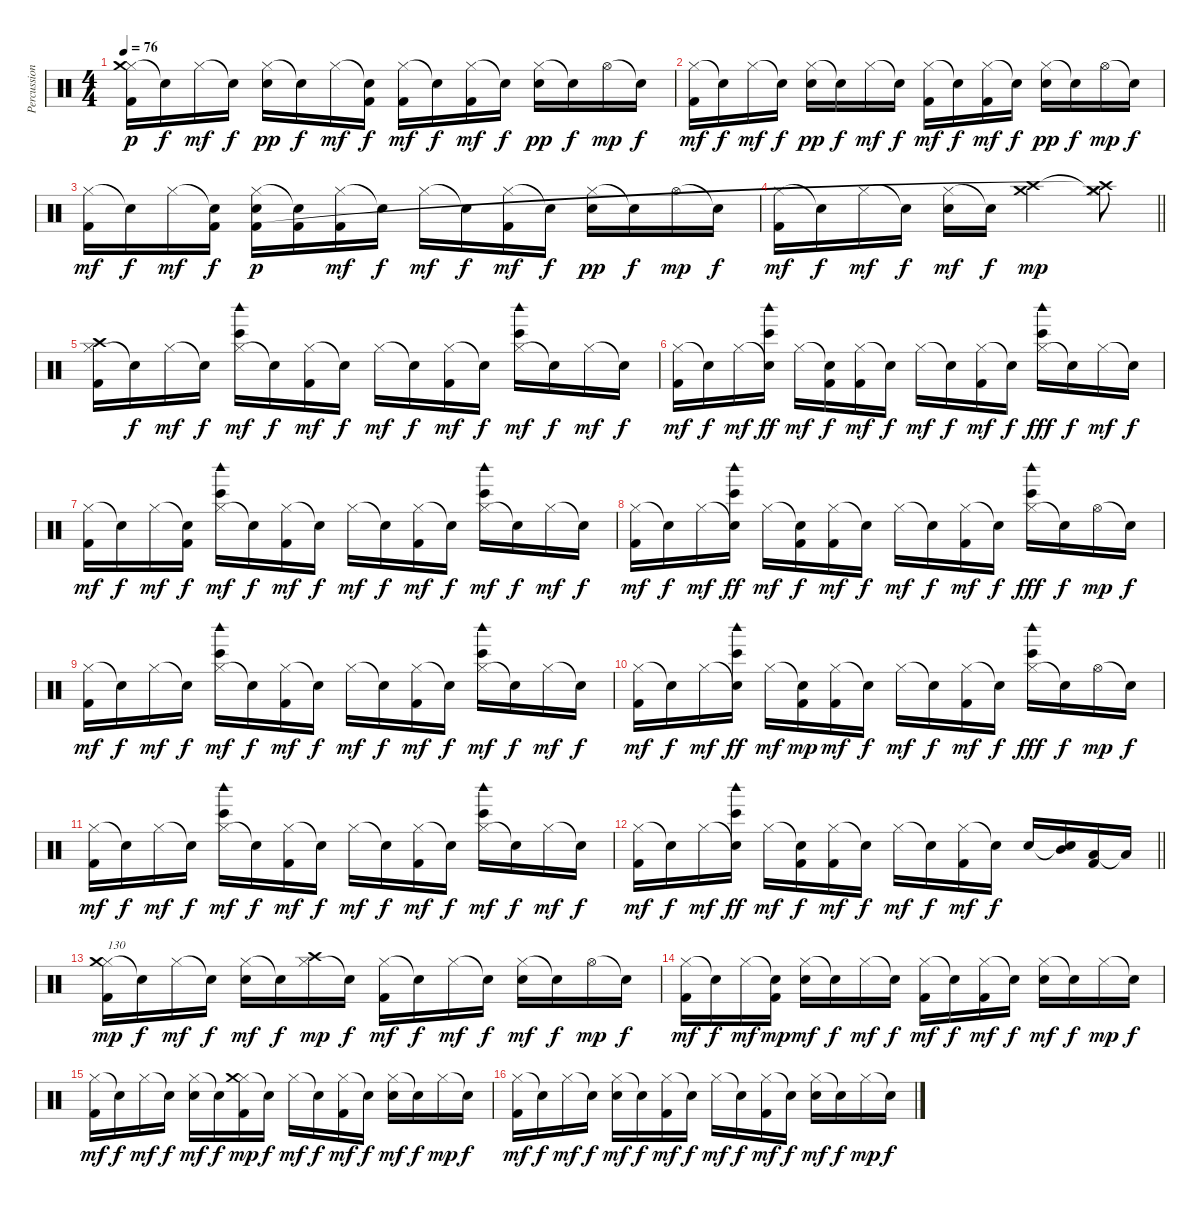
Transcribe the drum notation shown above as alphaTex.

\track ("Percussion" "Percussion") {instrument percussion}
\staff {score}
\articulation defaults
\ts (4 4)
\tempo 76
\clef neutral
\ks c
("Hi-Hat (closed)" "Crash medium (hit)" "Kick (hit) 2").16{dy p} "Snare (hit)"{t}.16{dy f} "Hi-Hat (closed)".16{dy mf} "Snare (hit)"{t}.16{dy f} ("Hi-Hat (closed)" "Electric Snare (hit)").16{dy pp} "Snare (hit)"{t}.16{dy f} "Hi-Hat (closed)".16{dy mf} ("Snare (hit)"{t} "Kick (hit) 2").16{dy f} ("Hi-Hat (closed)" "Kick (hit) 2").16{dy mf} "Snare (hit)"{t}.16{dy f} ("Hi-Hat (closed)" "Kick (hit) 2").16{dy mf} "Snare (hit)"{t}.16{dy f} ("Hi-Hat (closed)" "Electric Snare (hit)").16{dy pp} "Snare (hit)"{t}.16{dy f} "Hi-Hat (open)".16{dy mp} "Snare (hit)"{t}.16{dy f} |
("Hi-Hat (closed)" "Kick (hit) 2").16{dy mf} "Snare (hit)"{t}.16{dy f} "Hi-Hat (closed)".16{dy mf} "Snare (hit)"{t}.16{dy f} ("Hi-Hat (closed)" "Electric Snare (hit)").16{dy pp} "Snare (hit)"{t}.16{dy f} "Hi-Hat (closed)".16{dy mf} "Snare (hit)"{t}.16{dy f} ("Hi-Hat (closed)" "Kick (hit) 2").16{dy mf} "Snare (hit)"{t}.16{dy f} ("Hi-Hat (closed)" "Kick (hit) 2").16{dy mf} "Snare (hit)"{t}.16{dy f} ("Hi-Hat (closed)" "Electric Snare (hit)").16{dy pp} "Snare (hit)"{t}.16{dy f} "Hi-Hat (open)".16{dy mp} "Snare (hit)"{t}.16{dy f} |
("Hi-Hat (closed)" "Kick (hit) 2").16{dy mf} "Snare (hit)"{t}.16{dy f} "Hi-Hat (closed)".16{dy mf} ("Snare (hit)"{t} "Kick (hit) 2").16{dy f} ("Hi-Hat (closed)" "Electric Snare (hit)" "Kick (hit) 2").16{dy p} ("Snare (hit)"{t} "Kick (hit) 2").16 ("Hi-Hat (closed)" "Kick (hit) 2").16{dy mf} "Snare (hit)"{t}.16{dy f} "Hi-Hat (closed)".16{dy mf} "Snare (hit)"{t}.16{dy f} ("Hi-Hat (closed)" "Kick (hit) 2").16{dy mf} "Snare (hit)"{t}.16{dy f} ("Hi-Hat (closed)" "Electric Snare (hit)").16{dy pp} "Snare (hit)"{t}.16{dy f} "Hi-Hat (open)".16{dy mp} "Snare (hit)"{t}.16{dy f} |
\barLineRight lightlight
("Hi-Hat (closed)" "Kick (hit) 2").16{dy mf} "Snare (hit)"{t}.16{dy f} "Hi-Hat (closed)".16{dy mf} "Snare (hit)"{t}.16{dy f} ("Hi-Hat (closed)" "Electric Snare (hit)").16{dy mf} "Snare (hit)"{t}.16{dy f} ("Crash medium (hit)" "Crash high (hit)").2{dy mp} ("Hi-Hat (closed)" "Crash medium (hit)"{t} "Crash high (hit)"{t}).8 |
("Hi-Hat (closed)" "Crash high (hit)" "Kick (hit) 2").16 "Snare (hit)"{t}.16{dy f} "Hi-Hat (closed)".16{dy mf} "Snare (hit)"{t}.16{dy f} ("Hi-Hat (closed)" "Woodblock high (hit)" "Bongo High (hit)").16{dy mf} "Snare (hit)"{t}.16{dy f} ("Hi-Hat (closed)" "Kick (hit) 2").16{dy mf} "Snare (hit)"{t}.16{dy f} "Hi-Hat (closed)".16{dy mf} "Snare (hit)"{t}.16{dy f} ("Hi-Hat (closed)" "Kick (hit) 2").16{dy mf} "Snare (hit)"{t}.16{dy f} ("Hi-Hat (closed)" "Woodblock high (hit)" "Bongo High (hit)").16{dy mf} "Snare (hit)"{t}.16{dy f} "Hi-Hat (closed)".16{dy mf} "Snare (hit)"{t}.16{dy f} |
("Hi-Hat (closed)" "Kick (hit) 2").16{dy mf} "Snare (hit)"{t}.16{dy f} "Hi-Hat (closed)".16{dy mf} ("Snare (hit)"{t} "Woodblock high (hit)" "Bongo High (hit)").16{dy ff} "Hi-Hat (closed)".16{dy mf} ("Snare (hit)"{t} "Kick (hit) 2").16{dy f} ("Hi-Hat (closed)" "Kick (hit) 2").16{dy mf} "Snare (hit)"{t}.16{dy f} "Hi-Hat (closed)".16{dy mf} "Snare (hit)"{t}.16{dy f} ("Hi-Hat (closed)" "Kick (hit) 2").16{dy mf} "Snare (hit)"{t}.16{dy f} ("Hi-Hat (closed)" "Woodblock high (hit)" "Bongo High (hit)").16{dy fff} "Snare (hit)"{t}.16{dy f} "Hi-Hat (closed)".16{dy mf} "Snare (hit)"{t}.16{dy f} |
("Hi-Hat (closed)" "Kick (hit) 2").16{dy mf} "Snare (hit)"{t}.16{dy f} "Hi-Hat (closed)".16{dy mf} ("Snare (hit)"{t} "Kick (hit) 2").16{dy f} ("Hi-Hat (closed)" "Woodblock high (hit)" "Bongo High (hit)").16{dy mf} "Snare (hit)"{t}.16{dy f} ("Hi-Hat (closed)" "Kick (hit) 2").16{dy mf} "Snare (hit)"{t}.16{dy f} "Hi-Hat (closed)".16{dy mf} "Snare (hit)"{t}.16{dy f} ("Hi-Hat (closed)" "Kick (hit) 2").16{dy mf} "Snare (hit)"{t}.16{dy f} ("Hi-Hat (closed)" "Woodblock high (hit)" "Bongo High (hit)").16{dy mf} "Snare (hit)"{t}.16{dy f} "Hi-Hat (closed)".16{dy mf} "Snare (hit)"{t}.16{dy f} |
("Hi-Hat (closed)" "Kick (hit) 2").16{dy mf} "Snare (hit)"{t}.16{dy f} "Hi-Hat (closed)".16{dy mf} ("Snare (hit)"{t} "Woodblock high (hit)" "Bongo High (hit)").16{dy ff} "Hi-Hat (closed)".16{dy mf} ("Snare (hit)"{t} "Kick (hit) 2").16{dy f} ("Hi-Hat (closed)" "Kick (hit) 2").16{dy mf} "Snare (hit)"{t}.16{dy f} "Hi-Hat (closed)".16{dy mf} "Snare (hit)"{t}.16{dy f} ("Hi-Hat (closed)" "Kick (hit) 2").16{dy mf} "Snare (hit)"{t}.16{dy f} ("Hi-Hat (closed)" "Woodblock high (hit)" "Bongo High (hit)").16{dy fff} "Snare (hit)"{t}.16{dy f} "Hi-Hat (open)".16{dy mp} "Snare (hit)"{t}.16{dy f} |
("Hi-Hat (closed)" "Kick (hit) 2").16{dy mf} "Snare (hit)"{t}.16{dy f} "Hi-Hat (closed)".16{dy mf} "Snare (hit)"{t}.16{dy f} ("Hi-Hat (closed)" "Woodblock high (hit)" "Bongo High (hit)").16{dy mf} "Snare (hit)"{t}.16{dy f} ("Hi-Hat (closed)" "Kick (hit) 2").16{dy mf} "Snare (hit)"{t}.16{dy f} "Hi-Hat (closed)".16{dy mf} "Snare (hit)"{t}.16{dy f} ("Hi-Hat (closed)" "Kick (hit) 2").16{dy mf} "Snare (hit)"{t}.16{dy f} ("Hi-Hat (closed)" "Woodblock high (hit)" "Bongo High (hit)").16{dy mf} "Snare (hit)"{t}.16{dy f} "Hi-Hat (closed)".16{dy mf} "Snare (hit)"{t}.16{dy f} |
("Hi-Hat (closed)" "Kick (hit) 2").16{dy mf} "Snare (hit)"{t}.16{dy f} "Hi-Hat (closed)".16{dy mf} ("Snare (hit)"{t} "Woodblock high (hit)" "Bongo High (hit)").16{dy ff} "Hi-Hat (closed)".16{dy mf} ("Snare (hit)"{t} "Kick (hit) 2").16{dy mp} ("Hi-Hat (closed)" "Kick (hit) 2").16{dy mf} "Snare (hit)"{t}.16{dy f} "Hi-Hat (closed)".16{dy mf} "Snare (hit)"{t}.16{dy f} ("Hi-Hat (closed)" "Kick (hit) 2").16{dy mf} "Snare (hit)"{t}.16{dy f} ("Hi-Hat (closed)" "Woodblock high (hit)" "Bongo High (hit)").16{dy fff} "Snare (hit)"{t}.16{dy f} "Hi-Hat (open)".16{dy mp} "Snare (hit)"{t}.16{dy f} |
("Hi-Hat (closed)" "Kick (hit) 2").16{dy mf} "Snare (hit)"{t}.16{dy f} "Hi-Hat (closed)".16{dy mf} "Snare (hit)"{t}.16{dy f} ("Hi-Hat (closed)" "Woodblock high (hit)" "Bongo High (hit)").16{dy mf} "Snare (hit)"{t}.16{dy f} ("Hi-Hat (closed)" "Kick (hit) 2").16{dy mf} "Snare (hit)"{t}.16{dy f} "Hi-Hat (closed)".16{dy mf} "Snare (hit)"{t}.16{dy f} ("Hi-Hat (closed)" "Kick (hit) 2").16{dy mf} "Snare (hit)"{t}.16{dy f} ("Hi-Hat (closed)" "Woodblock high (hit)" "Bongo High (hit)").16{dy mf} "Snare (hit)"{t}.16{dy f} "Hi-Hat (closed)".16{dy mf} "Snare (hit)"{t}.16{dy f} |
\barLineRight lightlight
("Hi-Hat (closed)" "Kick (hit) 2").16{dy mf} "Snare (hit)"{t}.16{dy f} "Hi-Hat (closed)".16{dy mf} ("Snare (hit)"{t} "Woodblock high (hit)" "Bongo High (hit)").16{dy ff} "Hi-Hat (closed)".16{dy mf} ("Snare (hit)"{t} "Kick (hit) 2").16{dy f} ("Hi-Hat (closed)" "Kick (hit) 2").16{dy mf} "Snare (hit)"{t}.16{dy f} "Hi-Hat (closed)".16{dy mf} "Snare (hit)"{t}.16{dy f} ("Hi-Hat (closed)" "Kick (hit) 2").16{dy mf} "Snare (hit)"{t}.16{dy f} "Electric Snare (hit)".16 ("Snare (hit)"{t} "Mid Tom (hit)").16 ("Low Tom (hit)" "Kick (hit) 2").16 "Low Tom (hit)"{t}.16 |
("Hi-Hat (closed)" "Crash medium (hit)" "Kick (hit) 2").16{txt "130" dy mp} "Snare (hit)"{t}.16{dy f} "Hi-Hat (closed)".16{dy mf} "Snare (hit)"{t}.16{dy f} ("Hi-Hat (closed)" "Electric Snare (hit)").16{dy mf} "Snare (hit)"{t}.16{dy f} ("Hi-Hat (closed)" "Crash high (hit)").16{dy mp} "Snare (hit)"{t}.16{dy f} ("Hi-Hat (closed)" "Kick (hit) 2").16{dy mf} "Snare (hit)"{t}.16{dy f} "Hi-Hat (closed)".16{dy mf} "Snare (hit)"{t}.16{dy f} ("Hi-Hat (closed)" "Electric Snare (hit)").16{dy mf} "Snare (hit)"{t}.16{dy f} "Hi-Hat (open)".16{dy mp} "Snare (hit)"{t}.16{dy f} |
("Hi-Hat (closed)" "Kick (hit) 2").16{dy mf} "Snare (hit)"{t}.16{dy f} "Hi-Hat (closed)".16{dy mf} ("Snare (hit)"{t} "Kick (hit) 2").16{dy mp} ("Hi-Hat (closed)" "Electric Snare (hit)").16{dy mf} "Snare (hit)"{t}.16{dy f} "Hi-Hat (closed)".16{dy mf} "Snare (hit)"{t}.16{dy f} ("Hi-Hat (closed)" "Kick (hit) 2").16{dy mf} "Snare (hit)"{t}.16{dy f} ("Hi-Hat (closed)" "Kick (hit) 2").16{dy mf} "Snare (hit)"{t}.16{dy f} ("Hi-Hat (closed)" "Electric Snare (hit)").16{dy mf} "Snare (hit)"{t}.16{dy f} "Hi-Hat (closed)".16{dy mp} "Snare (hit)"{t}.16{dy f} |
("Hi-Hat (closed)" "Kick (hit) 2").16{dy mf} "Snare (hit)"{t}.16{dy f} "Hi-Hat (closed)".16{dy mf} "Snare (hit)"{t}.16{dy f} ("Hi-Hat (closed)" "Electric Snare (hit)").16{dy mf} "Snare (hit)"{t}.16{dy f} ("Hi-Hat (closed)" "Crash medium (hit)" "Kick (hit) 2").16{dy mp} "Snare (hit)"{t}.16{dy f} "Hi-Hat (closed)".16{dy mf} "Snare (hit)"{t}.16{dy f} ("Hi-Hat (closed)" "Kick (hit) 2").16{dy mf} "Snare (hit)"{t}.16{dy f} ("Hi-Hat (closed)" "Electric Snare (hit)").16{dy mf} "Snare (hit)"{t}.16{dy f} "Hi-Hat (closed)".16{dy mp} "Snare (hit)"{t}.16{dy f} |
("Hi-Hat (closed)" "Kick (hit) 2").16{dy mf} "Snare (hit)"{t}.16{dy f} "Hi-Hat (closed)".16{dy mf} "Snare (hit)"{t}.16{dy f} ("Hi-Hat (closed)" "Electric Snare (hit)").16{dy mf} "Snare (hit)"{t}.16{dy f} ("Hi-Hat (closed)" "Kick (hit) 2").16{dy mf} "Snare (hit)"{t}.16{dy f} "Hi-Hat (closed)".16{dy mf} "Snare (hit)"{t}.16{dy f} ("Hi-Hat (closed)" "Kick (hit) 2").16{dy mf} "Snare (hit)"{t}.16{dy f} ("Hi-Hat (closed)" "Electric Snare (hit)").16{dy mf} "Snare (hit)"{t}.16{dy f} "Hi-Hat (closed)".16{dy mp} "Snare (hit)"{t}.16{dy f}
